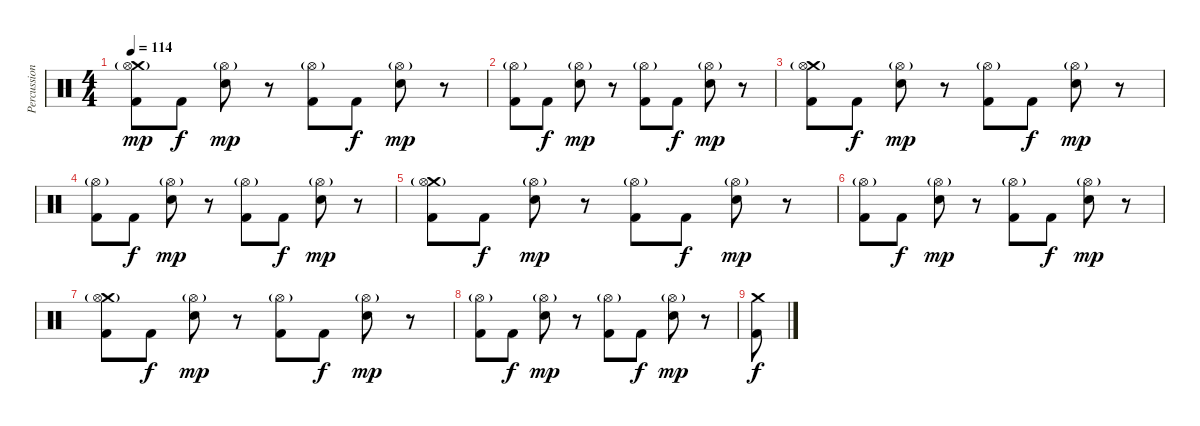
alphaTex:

\track ("Percussion" "Percussion") {instrument percussion}
\staff {score}
\articulation defaults
\ts (4 4)
\tempo 114
\clef neutral
\ks c
("Crash medium (hit)" "Kick (hit) 2" "Hi-Hat (open)"{g}).8{dy mp} "Kick (hit) 2".8{dy f} ("Snare (hit) 2" "Hi-Hat (open)"{g}).8{dy mp} r.8 ("Kick (hit) 2" "Hi-Hat (open)"{g}).8 "Kick (hit) 2".8{dy f} ("Snare (hit) 2" "Hi-Hat (open)"{g}).8{dy mp} r.8 |
("Kick (hit) 2" "Hi-Hat (open)"{g}).8 "Kick (hit) 2".8{dy f} ("Snare (hit) 2" "Hi-Hat (open)"{g}).8{dy mp} r.8 ("Kick (hit) 2" "Hi-Hat (open)"{g}).8 "Kick (hit) 2".8{dy f} ("Snare (hit) 2" "Hi-Hat (open)"{g}).8{dy mp} r.8 |
("Crash medium (hit)" "Kick (hit) 2" "Hi-Hat (open)"{g}).8 "Kick (hit) 2".8{dy f} ("Snare (hit) 2" "Hi-Hat (open)"{g}).8{dy mp} r.8 ("Kick (hit) 2" "Hi-Hat (open)"{g}).8 "Kick (hit) 2".8{dy f} ("Snare (hit) 2" "Hi-Hat (open)"{g}).8{dy mp} r.8 |
("Kick (hit) 2" "Hi-Hat (open)"{g}).8 "Kick (hit) 2".8{dy f} ("Snare (hit) 2" "Hi-Hat (open)"{g}).8{dy mp} r.8 ("Kick (hit) 2" "Hi-Hat (open)"{g}).8 "Kick (hit) 2".8{dy f} ("Snare (hit) 2" "Hi-Hat (open)"{g}).8{dy mp} r.8 |
("Crash medium (hit)" "Kick (hit) 2" "Hi-Hat (open)"{g}).8 "Kick (hit) 2".8{dy f} ("Snare (hit) 2" "Hi-Hat (open)"{g}).8{dy mp} r.8 ("Kick (hit) 2" "Hi-Hat (open)"{g}).8 "Kick (hit) 2".8{dy f} ("Snare (hit) 2" "Hi-Hat (open)"{g}).8{dy mp} r.8 |
("Kick (hit) 2" "Hi-Hat (open)"{g}).8 "Kick (hit) 2".8{dy f} ("Snare (hit) 2" "Hi-Hat (open)"{g}).8{dy mp} r.8 ("Kick (hit) 2" "Hi-Hat (open)"{g}).8 "Kick (hit) 2".8{dy f} ("Snare (hit) 2" "Hi-Hat (open)"{g}).8{dy mp} r.8 |
("Crash medium (hit)" "Kick (hit) 2" "Hi-Hat (open)"{g}).8 "Kick (hit) 2".8{dy f} ("Snare (hit) 2" "Hi-Hat (open)"{g}).8{dy mp} r.8 ("Kick (hit) 2" "Hi-Hat (open)"{g}).8 "Kick (hit) 2".8{dy f} ("Snare (hit) 2" "Hi-Hat (open)"{g}).8{dy mp} r.8 |
("Kick (hit) 2" "Hi-Hat (open)"{g}).8 "Kick (hit) 2".8{dy f} ("Snare (hit) 2" "Hi-Hat (open)"{g}).8{dy mp} r.8 ("Kick (hit) 2" "Hi-Hat (open)"{g}).8 "Kick (hit) 2".8{dy f} ("Snare (hit) 2" "Hi-Hat (open)"{g}).8{dy mp} r.8 |
("Crash medium (hit)" "Kick (hit) 2").8{dy f}
